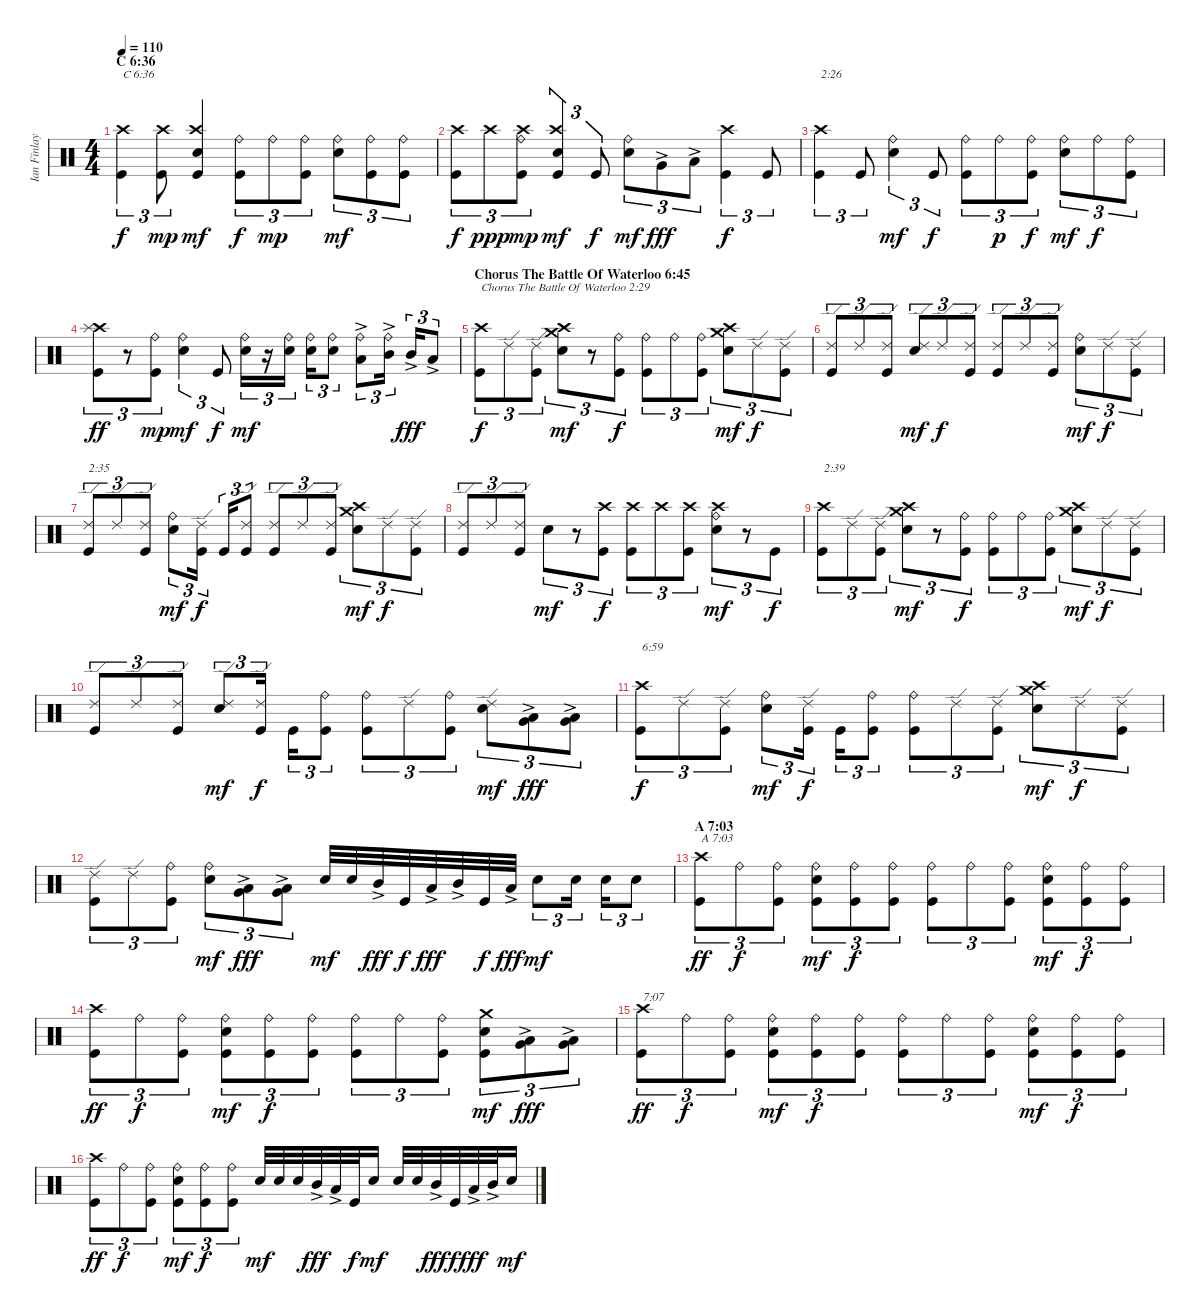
\track ("Ian Finlay" "Ian Finlay") {instrument percussion}
\staff {score}
\articulation defaults
\ts (4 4)
\section ("" "C 6:36")
\tempo 110
\clef neutral
\ks c
("Kick (hit)" "Crash high (hit)").4{tu (3 2) txt "C 6:36" dy f} ("Kick (hit)" "Crash high (hit)").8{tu (3 2) dy mp} ("Kick (hit)" "Snare (hit) 2" "Crash high (hit)").4{dy mf} ("Kick (hit)" "Ride (bell)").8{tu (3 2) dy f} "Ride (bell)".8{tu (3 2) dy mp} ("Kick (hit)" "Ride (bell)").8{tu (3 2)} ("Snare (hit) 2" "Ride (bell)").8{tu (3 2) dy mf} ("Kick (hit)" "Ride (bell)").8{tu (3 2)} ("Kick (hit)" "Ride (bell)").8{tu (3 2)} |
("Kick (hit)" "Crash high (hit)").8{tu (3 2) dy f} "Crash high (hit)".8{tu (3 2) dy ppp} ("Kick (hit)" "Ride (bell)" "Crash high (hit)").8{tu (3 2) dy mp} ("Kick (hit)" "Snare (hit) 2" "Crash high (hit)").4{tu (3 2) dy mf} "Kick (hit)".8{tu (3 2) dy f} ("Snare (hit) 2" "Ride (bell)").8{tu (3 2) dy mf} "Very Low Tom (hit)"{ac}.8{tu (3 2) dy fff} "Low Tom (hit)"{ac}.8{tu (3 2)} ("Kick (hit)" "Crash high (hit)").4{tu (3 2) dy f} "Kick (hit)".8{tu (3 2)} |
("Kick (hit)" "Crash high (hit)").4{tu (3 2) txt "2:26"} "Kick (hit)".8{tu (3 2)} ("Snare (hit) 2" "Ride (bell)").4{tu (3 2) dy mf} "Kick (hit)".8{tu (3 2) dy f} ("Kick (hit)" "Ride (bell)").8{tu (3 2)} "Ride (bell)".8{tu (3 2) dy p} ("Kick (hit)" "Ride (bell)").8{tu (3 2) dy f} ("Snare (hit) 2" "Ride (bell)").8{tu (3 2) dy mf} "Ride (bell)".8{tu (3 2) dy f} ("Kick (hit)" "Ride (bell)").8{tu (3 2)} |
("Kick (hit)" "Crash high (hit)" "Splash (hit)").8{tu (3 2) dy ff} r.8{tu (3 2)} ("Kick (hit)" "Ride (bell)").8{tu (3 2) dy mp} ("Snare (hit) 2" "Ride (bell)").4{tu (3 2) dy mf} "Kick (hit)".8{tu (3 2) dy f} ("Snare (hit) 2" "Ride (bell)").16{tu (3 2) dy mf} r.16{tu (3 2)} ("Snare (hit) 2" "Ride (bell)").16{tu (3 2)} ("Snare (hit) 2" "Ride (bell)").16{tu (3 2)} ("Snare (hit) 2" "Ride (bell)").8{tu (3 2)} ("Low Tom (hit)"{ac} "Ride (bell)").8{tu (3 2)} ("Mid Tom (hit)"{ac} "Ride (bell)").16{tu (3 2)} "Mid Tom (hit)"{ac}.16{tu (3 2) dy fff} "Low Tom (hit)"{ac}.8{tu (3 2)} |
\section ("" "Chorus The Battle Of Waterloo 6:45")
("Kick (hit)" "Crash high (hit)").8{tu (3 2) txt "Chorus The Battle Of Waterloo 2:29" dy f} "Ride (edge) 2".8{tu (3 2)} ("Kick (hit)" "Ride (edge) 2").8{tu (3 2)} ("Snare (hit) 2" "Crash medium (hit)" "Crash high (hit)").8{tu (3 2) dy mf} r.8{tu (3 2)} ("Kick (hit)" "Ride (bell)").8{tu (3 2) dy f} ("Kick (hit)" "Ride (bell)").8{tu (3 2)} "Ride (bell)".8{tu (3 2)} ("Kick (hit)" "Ride (bell)").8{tu (3 2)} ("Snare (hit) 2" "Crash medium (hit)" "Crash high (hit)").8{tu (3 2) dy mf} "Ride (edge) 2".8{tu (3 2) dy f} ("Kick (hit)" "Ride (edge) 2").8{tu (3 2)} |
("Kick (hit)" "Ride (edge) 2").8{tu (3 2)} "Ride (edge) 2".8{tu (3 2)} ("Kick (hit)" "Ride (edge) 2").8{tu (3 2)} ("Snare (hit) 2" "Ride (edge) 2").8{tu (3 2) dy mf} "Ride (edge) 2".8{tu (3 2) dy f} ("Kick (hit)" "Ride (edge) 2").8{tu (3 2)} ("Kick (hit)" "Ride (edge) 2").8{tu (3 2)} "Ride (edge) 2".8{tu (3 2)} ("Kick (hit)" "Ride (edge) 2").8{tu (3 2)} ("Snare (hit) 2" "Ride (bell)").8{tu (3 2) dy mf} "Ride (edge) 2".8{tu (3 2) dy f} ("Kick (hit)" "Ride (edge) 2").8{tu (3 2)} |
("Kick (hit)" "Ride (edge) 2").8{tu (3 2) txt "2:35"} "Ride (edge) 2".8{tu (3 2)} ("Kick (hit)" "Ride (edge) 2").8{tu (3 2)} ("Snare (hit) 2" "Ride (bell)").8{tu (3 2) dy mf} ("Kick (hit)" "Ride (edge) 2").16{tu (3 2) dy f} "Kick (hit)".16{tu (3 2)} ("Kick (hit)" "Ride (edge) 2").8{tu (3 2)} ("Kick (hit)" "Ride (edge) 2").8{tu (3 2)} "Ride (edge) 2".8{tu (3 2)} ("Kick (hit)" "Ride (edge) 2").8{tu (3 2)} ("Snare (hit) 2" "Crash medium (hit)" "Crash high (hit)").8{tu (3 2) dy mf} "Ride (edge) 2".8{tu (3 2) dy f} ("Kick (hit)" "Ride (edge) 2").8{tu (3 2)} |
("Kick (hit)" "Ride (edge) 2").8{tu (3 2)} "Ride (edge) 2".8{tu (3 2)} ("Kick (hit)" "Ride (edge) 2").8{tu (3 2)} "Snare (hit) 2".8{tu (3 2) dy mf} r.8{tu (3 2)} ("Kick (hit)" "Crash high (hit)").8{tu (3 2) dy f} ("Kick (hit)" "Crash high (hit)").8{tu (3 2)} "Crash high (hit)".8{tu (3 2)} ("Kick (hit)" "Crash high (hit)").8{tu (3 2)} ("Snare (hit) 2" "Ride (bell)" "Crash high (hit)").8{tu (3 2) dy mf} r.8{tu (3 2)} "Kick (hit)".8{tu (3 2) dy f} |
("Kick (hit)" "Crash high (hit)").8{tu (3 2) txt "2:39"} "Ride (edge) 2".8{tu (3 2)} ("Kick (hit)" "Ride (edge) 2").8{tu (3 2)} ("Snare (hit) 2" "Crash medium (hit)" "Crash high (hit)").8{tu (3 2) dy mf} r.8{tu (3 2)} ("Kick (hit)" "Ride (bell)").8{tu (3 2) dy f} ("Kick (hit)" "Ride (bell)").8{tu (3 2)} "Ride (bell)".8{tu (3 2)} ("Kick (hit)" "Ride (bell)").8{tu (3 2)} ("Snare (hit) 2" "Crash medium (hit)" "Crash high (hit)").8{tu (3 2) dy mf} "Ride (edge) 2".8{tu (3 2) dy f} ("Kick (hit)" "Ride (edge) 2").8{tu (3 2)} |
("Kick (hit)" "Ride (edge) 2").8{tu (3 2)} "Ride (edge) 2".8{tu (3 2)} ("Kick (hit)" "Ride (edge) 2").8{tu (3 2)} ("Snare (hit) 2" "Ride (edge) 2").8{tu (3 2) dy mf} ("Kick (hit)" "Ride (edge) 2").16{tu (3 2) dy f} "Kick (hit)".16{tu (3 2)} ("Kick (hit)" "Ride (bell)").8{tu (3 2)} ("Kick (hit)" "Ride (bell)").8{tu (3 2)} "Ride (edge) 2".8{tu (3 2)} ("Kick (hit)" "Ride (bell)").8{tu (3 2)} ("Snare (hit) 2" "Ride (edge) 2").8{tu (3 2) dy mf} ("Very Low Tom (hit)"{ac} "Low Floor Tom (hit)"{ac}).8{tu (3 2) dy fff} ("Very Low Tom (hit)"{ac} "Low Tom (hit)"{ac}).8{tu (3 2)} |
("Kick (hit)" "Crash high (hit)").8{tu (3 2) txt "6:59" dy f} "Ride (edge) 2".8{tu (3 2)} ("Kick (hit)" "Ride (edge) 2").8{tu (3 2)} ("Snare (hit) 2" "Ride (bell)").8{tu (3 2) dy mf} ("Kick (hit)" "Ride (edge) 2").16{tu (3 2) dy f} "Kick (hit)".16{tu (3 2)} ("Kick (hit)" "Ride (bell)").8{tu (3 2)} ("Kick (hit)" "Ride (bell)").8{tu (3 2)} "Ride (edge) 2".8{tu (3 2)} ("Kick (hit)" "Ride (edge) 2").8{tu (3 2)} ("Snare (hit) 2" "Crash medium (hit)" "Crash high (hit)").8{tu (3 2) dy mf} "Ride (edge) 2".8{tu (3 2) dy f} ("Kick (hit)" "Ride (edge) 2").8{tu (3 2)} |
("Kick (hit)" "Ride (edge) 2").8{tu (3 2)} "Ride (edge) 2".8{tu (3 2)} ("Kick (hit)" "Ride (bell)").8{tu (3 2)} ("Snare (hit) 2" "Ride (bell)").8{tu (3 2) dy mf} ("Very Low Tom (hit)"{ac} "Low Floor Tom (hit)"{ac}).8{tu (3 2) dy fff} ("Very Low Tom (hit)"{ac} "Low Tom (hit)"{ac}).8{tu (3 2)} "Snare (hit) 2".32{dy mf} "Snare (hit) 2".32 "Mid Tom (hit)"{ac}.32{dy fff} "Kick (hit)".32{dy f} "Low Tom (hit)"{ac}.32{dy fff} "Mid Tom (hit)"{ac}.32 "Kick (hit)".32{dy f} "Low Tom (hit)"{ac}.32{dy fff} "Snare (hit) 2".8{tu (3 2) dy mf} "Snare (hit) 2".16{tu (3 2)} "Snare (hit) 2".16{tu (3 2)} "Snare (hit) 2".8{tu (3 2)} |
\section ("" "A 7:03")
("Kick (hit)" "Crash high (hit)").8{tu (3 2) txt "A 7:03" dy ff} "Ride (bell)".8{tu (3 2) dy f} ("Kick (hit)" "Ride (bell)").8{tu (3 2)} ("Kick (hit)" "Snare (hit) 2" "Ride (bell)").8{tu (3 2) dy mf} ("Kick (hit)" "Ride (bell)").8{tu (3 2) dy f} ("Kick (hit)" "Ride (bell)").8{tu (3 2)} ("Kick (hit)" "Ride (bell)").8{tu (3 2)} "Ride (bell)".8{tu (3 2)} ("Kick (hit)" "Ride (bell)").8{tu (3 2)} ("Kick (hit)" "Snare (hit) 2" "Ride (bell)").8{tu (3 2) dy mf} ("Kick (hit)" "Ride (bell)").8{tu (3 2) dy f} ("Kick (hit)" "Ride (bell)").8{tu (3 2)} |
("Kick (hit)" "Crash high (hit)").8{tu (3 2) dy ff} "Ride (bell)".8{tu (3 2) dy f} ("Kick (hit)" "Ride (bell)").8{tu (3 2)} ("Kick (hit)" "Snare (hit) 2" "Ride (bell)").8{tu (3 2) dy mf} ("Kick (hit)" "Ride (bell)").8{tu (3 2) dy f} ("Kick (hit)" "Ride (bell)").8{tu (3 2)} ("Kick (hit)" "Ride (bell)").8{tu (3 2)} "Ride (bell)".8{tu (3 2)} ("Kick (hit)" "Ride (bell)").8{tu (3 2)} ("Kick (hit)" "Snare (hit) 2" "Crash medium (hit)").8{tu (3 2) dy mf} ("Very Low Tom (hit)"{ac} "Low Floor Tom (hit)"{ac}).8{tu (3 2) dy fff} ("Very Low Tom (hit)"{ac} "Low Tom (hit)"{ac}).8{tu (3 2)} |
("Kick (hit)" "Crash high (hit)").8{tu (3 2) txt "7:07" dy ff} "Ride (bell)".8{tu (3 2) dy f} ("Kick (hit)" "Ride (bell)").8{tu (3 2)} ("Kick (hit)" "Snare (hit) 2" "Ride (bell)").8{tu (3 2) dy mf} ("Kick (hit)" "Ride (bell)").8{tu (3 2) dy f} ("Kick (hit)" "Ride (bell)").8{tu (3 2)} ("Kick (hit)" "Ride (bell)").8{tu (3 2)} "Ride (bell)".8{tu (3 2)} ("Kick (hit)" "Ride (bell)").8{tu (3 2)} ("Kick (hit)" "Snare (hit) 2" "Ride (bell)").8{tu (3 2) dy mf} ("Kick (hit)" "Ride (bell)").8{tu (3 2) dy f} ("Kick (hit)" "Ride (bell)").8{tu (3 2)} |
("Kick (hit)" "Crash high (hit)").8{tu (3 2) dy ff} "Ride (bell)".8{tu (3 2) dy f} ("Kick (hit)" "Ride (bell)").8{tu (3 2)} ("Kick (hit)" "Snare (hit) 2" "Ride (bell)").8{tu (3 2) dy mf} ("Kick (hit)" "Ride (bell)").8{tu (3 2) dy f} ("Kick (hit)" "Ride (bell)").8{tu (3 2)} "Snare (hit) 2".32{dy mf} "Snare (hit) 2".32 "Snare (hit) 2".32 "Mid Tom (hit)"{ac}.32{dy fff} "Low Tom (hit)"{ac}.32 "Kick (hit)".32{dy f} "Snare (hit) 2".16{dy mf} "Snare (hit) 2".32 "Snare (hit) 2".32 "Mid Tom (hit)"{ac}.32{dy fff} "Kick (hit)".32{dy f} "Low Tom (hit)"{ac}.32{dy fff} "Mid Tom (hit)"{ac}.32 "Snare (hit) 2".16{dy mf}
